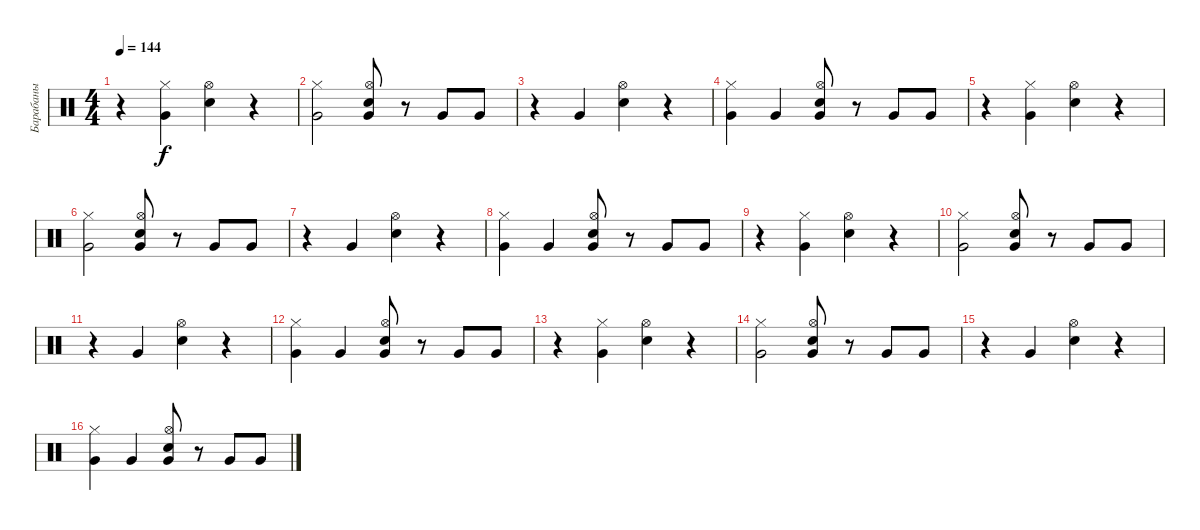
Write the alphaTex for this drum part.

\track ("Барабаны" "Барабаны") {instrument percussion}
\staff {score}
\articulation defaults
\ts (4 4)
\tempo 144
\clef neutral
\ks c
r.4{dy f} ("Very Low Tom (hit)" "Hi-Hat (closed)").4 ("Snare (hit) 2" "Hi-Hat (open)").4 r.4 |
("Hi-Hat (closed)" "Very Low Tom (hit)").2 ("Electric Snare (hit)" "Hi-Hat (open)" "Very Low Tom (hit)").8 r.8 "Very Low Tom (hit)".8 "Very Low Tom (hit)".8 |
r.4 "Very Low Tom (hit)".4 ("Snare (hit) 2" "Hi-Hat (open)").4 r.4 |
("Hi-Hat (closed)" "Very Low Tom (hit)").4 "Very Low Tom (hit)".4 ("Electric Snare (hit)" "Hi-Hat (open)" "Very Low Tom (hit)").8 r.8 "Very Low Tom (hit)".8 "Very Low Tom (hit)".8 |
r.4 ("Very Low Tom (hit)" "Hi-Hat (closed)").4 ("Snare (hit) 2" "Hi-Hat (open)").4 r.4 |
("Hi-Hat (closed)" "Very Low Tom (hit)").2 ("Electric Snare (hit)" "Hi-Hat (open)" "Very Low Tom (hit)").8 r.8 "Very Low Tom (hit)".8 "Very Low Tom (hit)".8 |
r.4 "Very Low Tom (hit)".4 ("Snare (hit) 2" "Hi-Hat (open)").4 r.4 |
("Hi-Hat (closed)" "Very Low Tom (hit)").4 "Very Low Tom (hit)".4 ("Electric Snare (hit)" "Hi-Hat (open)" "Very Low Tom (hit)").8 r.8 "Very Low Tom (hit)".8 "Very Low Tom (hit)".8 |
r.4 ("Very Low Tom (hit)" "Hi-Hat (closed)").4 ("Snare (hit) 2" "Hi-Hat (open)").4 r.4 |
("Hi-Hat (closed)" "Very Low Tom (hit)").2 ("Electric Snare (hit)" "Hi-Hat (open)" "Very Low Tom (hit)").8 r.8 "Very Low Tom (hit)".8 "Very Low Tom (hit)".8 |
r.4 "Very Low Tom (hit)".4 ("Snare (hit) 2" "Hi-Hat (open)").4 r.4 |
("Hi-Hat (closed)" "Very Low Tom (hit)").4 "Very Low Tom (hit)".4 ("Electric Snare (hit)" "Hi-Hat (open)" "Very Low Tom (hit)").8 r.8 "Very Low Tom (hit)".8 "Very Low Tom (hit)".8 |
r.4 ("Very Low Tom (hit)" "Hi-Hat (closed)").4 ("Snare (hit) 2" "Hi-Hat (open)").4 r.4 |
("Hi-Hat (closed)" "Very Low Tom (hit)").2 ("Electric Snare (hit)" "Hi-Hat (open)" "Very Low Tom (hit)").8 r.8 "Very Low Tom (hit)".8 "Very Low Tom (hit)".8 |
r.4 "Very Low Tom (hit)".4 ("Snare (hit) 2" "Hi-Hat (open)").4 r.4 |
("Hi-Hat (closed)" "Very Low Tom (hit)").4 "Very Low Tom (hit)".4 ("Electric Snare (hit)" "Hi-Hat (open)" "Very Low Tom (hit)").8 r.8 "Very Low Tom (hit)".8 "Very Low Tom (hit)".8
